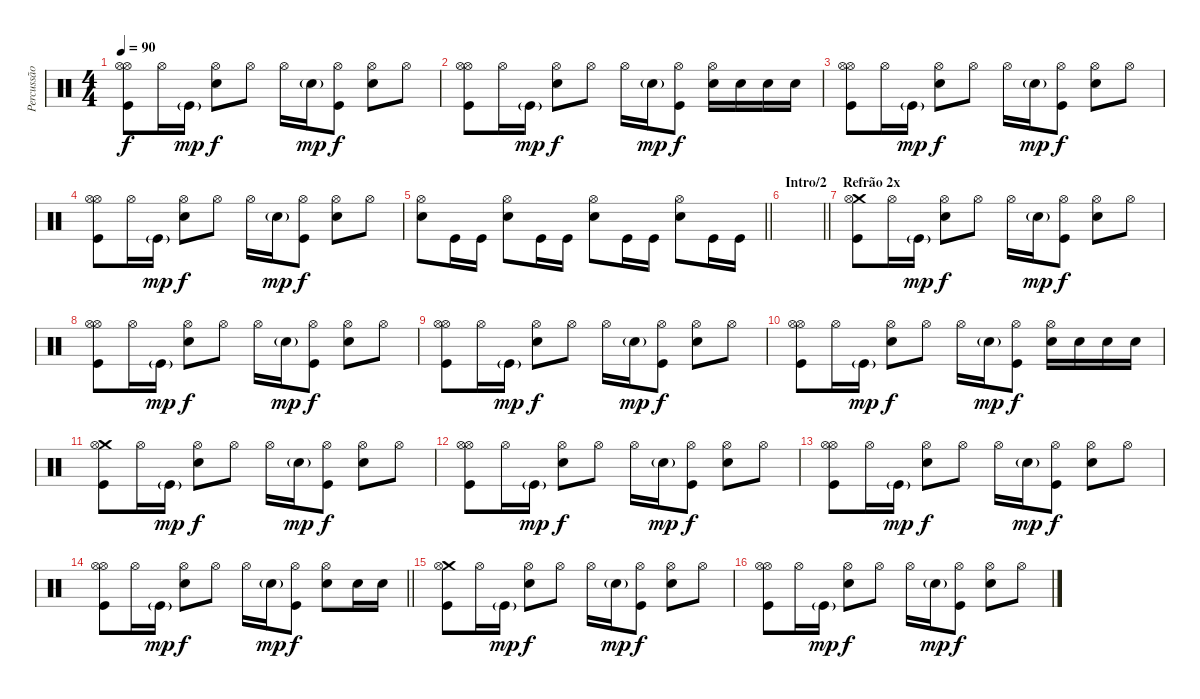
\track ("Percussão" "Percussão") {instrument percussion}
\staff {score}
\articulation defaults
\ts (4 4)
\tempo 90
\clef neutral
\ks c
("Hi-Hat (open)" "Kick (hit)" "Hi-Hat (open)").8{dy f} "Hi-Hat (open)".16 "Kick (hit)"{g}.16{dy mp} ("Snare (hit) 2" "Hi-Hat (open)").8{dy f} "Hi-Hat (open)".8 "Hi-Hat (open)".16 "Snare (hit) 2"{g}.16{dy mp} ("Hi-Hat (open)" "Kick (hit)").8{dy f} ("Hi-Hat (open)" "Snare (hit) 2").8 "Hi-Hat (open)".8 |
("Hi-Hat (open)" "Kick (hit)" "Hi-Hat (open)").8 "Hi-Hat (open)".16 "Kick (hit)"{g}.16{dy mp} ("Snare (hit) 2" "Hi-Hat (open)").8{dy f} "Hi-Hat (open)".8 "Hi-Hat (open)".16 "Snare (hit) 2"{g}.16{dy mp} ("Hi-Hat (open)" "Kick (hit)").8{dy f} ("Hi-Hat (open)" "Snare (hit) 2").16 "Snare (hit) 2".16 "Snare (hit) 2".16 "Snare (hit) 2".16 |
("Hi-Hat (open)" "Kick (hit)" "Hi-Hat (open)").8 "Hi-Hat (open)".16 "Kick (hit)"{g}.16{dy mp} ("Snare (hit) 2" "Hi-Hat (open)").8{dy f} "Hi-Hat (open)".8 "Hi-Hat (open)".16 "Snare (hit) 2"{g}.16{dy mp} ("Hi-Hat (open)" "Kick (hit)").8{dy f} ("Hi-Hat (open)" "Snare (hit) 2").8 "Hi-Hat (open)".8 |
("Hi-Hat (open)" "Kick (hit)" "Hi-Hat (open)").8 "Hi-Hat (open)".16 "Kick (hit)"{g}.16{dy mp} ("Snare (hit) 2" "Hi-Hat (open)").8{dy f} "Hi-Hat (open)".8 "Hi-Hat (open)".16 "Snare (hit) 2"{g}.16{dy mp} ("Hi-Hat (open)" "Kick (hit)").8{dy f} ("Hi-Hat (open)" "Snare (hit) 2").8 "Hi-Hat (open)".8 |
\barLineRight lightlight
("Snare (hit) 2" "Hi-Hat (open)").8 "Kick (hit)".16 "Kick (hit)".16 ("Snare (hit) 2" "Hi-Hat (open)").8 "Kick (hit)".16 "Kick (hit)".16 ("Snare (hit) 2" "Hi-Hat (open)").8 "Kick (hit)".16 "Kick (hit)".16 ("Snare (hit) 2" "Hi-Hat (open)").8 "Kick (hit)".16 "Kick (hit)".16 |
\section ("" "Intro/2")
\barLineRight lightlight
|
\section ("" "Refrão 2x")
("Crash medium (hit)" "Kick (hit)" "Hi-Hat (open)").8 "Hi-Hat (open)".16 "Kick (hit)"{g}.16{dy mp} ("Snare (hit) 2" "Hi-Hat (open)").8{dy f} "Hi-Hat (open)".8 "Hi-Hat (open)".16 "Snare (hit) 2"{g}.16{dy mp} ("Hi-Hat (open)" "Kick (hit)").8{dy f} ("Hi-Hat (open)" "Snare (hit) 2").8 "Hi-Hat (open)".8 |
("Hi-Hat (open)" "Kick (hit)" "Hi-Hat (open)").8 "Hi-Hat (open)".16 "Kick (hit)"{g}.16{dy mp} ("Snare (hit) 2" "Hi-Hat (open)").8{dy f} "Hi-Hat (open)".8 "Hi-Hat (open)".16 "Snare (hit) 2"{g}.16{dy mp} ("Hi-Hat (open)" "Kick (hit)").8{dy f} ("Hi-Hat (open)" "Snare (hit) 2").8 "Hi-Hat (open)".8 |
("Hi-Hat (open)" "Kick (hit)" "Hi-Hat (open)").8 "Hi-Hat (open)".16 "Kick (hit)"{g}.16{dy mp} ("Snare (hit) 2" "Hi-Hat (open)").8{dy f} "Hi-Hat (open)".8 "Hi-Hat (open)".16 "Snare (hit) 2"{g}.16{dy mp} ("Hi-Hat (open)" "Kick (hit)").8{dy f} ("Hi-Hat (open)" "Snare (hit) 2").8 "Hi-Hat (open)".8 |
("Hi-Hat (open)" "Kick (hit)" "Hi-Hat (open)").8 "Hi-Hat (open)".16 "Kick (hit)"{g}.16{dy mp} ("Snare (hit) 2" "Hi-Hat (open)").8{dy f} "Hi-Hat (open)".8 "Hi-Hat (open)".16 "Snare (hit) 2"{g}.16{dy mp} ("Hi-Hat (open)" "Kick (hit)").8{dy f} ("Hi-Hat (open)" "Snare (hit) 2").16 "Snare (hit) 2".16 "Snare (hit) 2".16 "Snare (hit) 2".16 |
("Crash medium (hit)" "Kick (hit)" "Hi-Hat (open)").8 "Hi-Hat (open)".16 "Kick (hit)"{g}.16{dy mp} ("Snare (hit) 2" "Hi-Hat (open)").8{dy f} "Hi-Hat (open)".8 "Hi-Hat (open)".16 "Snare (hit) 2"{g}.16{dy mp} ("Hi-Hat (open)" "Kick (hit)").8{dy f} ("Hi-Hat (open)" "Snare (hit) 2").8 "Hi-Hat (open)".8 |
("Hi-Hat (open)" "Kick (hit)" "Hi-Hat (open)").8 "Hi-Hat (open)".16 "Kick (hit)"{g}.16{dy mp} ("Snare (hit) 2" "Hi-Hat (open)").8{dy f} "Hi-Hat (open)".8 "Hi-Hat (open)".16 "Snare (hit) 2"{g}.16{dy mp} ("Hi-Hat (open)" "Kick (hit)").8{dy f} ("Hi-Hat (open)" "Snare (hit) 2").8 "Hi-Hat (open)".8 |
("Hi-Hat (open)" "Kick (hit)" "Hi-Hat (open)").8 "Hi-Hat (open)".16 "Kick (hit)"{g}.16{dy mp} ("Snare (hit) 2" "Hi-Hat (open)").8{dy f} "Hi-Hat (open)".8 "Hi-Hat (open)".16 "Snare (hit) 2"{g}.16{dy mp} ("Hi-Hat (open)" "Kick (hit)").8{dy f} ("Hi-Hat (open)" "Snare (hit) 2").8 "Hi-Hat (open)".8 |
\barLineRight lightlight
("Hi-Hat (open)" "Kick (hit)" "Hi-Hat (open)").8 "Hi-Hat (open)".16 "Kick (hit)"{g}.16{dy mp} ("Snare (hit) 2" "Hi-Hat (open)").8{dy f} "Hi-Hat (open)".8 "Hi-Hat (open)".16 "Snare (hit) 2"{g}.16{dy mp} ("Hi-Hat (open)" "Kick (hit)").8{dy f} ("Hi-Hat (open)" "Snare (hit) 2").8 "Snare (hit) 2".16 "Snare (hit) 2".16 |
("Crash medium (hit)" "Kick (hit)" "Hi-Hat (open)").8 "Hi-Hat (open)".16 "Kick (hit)"{g}.16{dy mp} ("Snare (hit) 2" "Hi-Hat (open)").8{dy f} "Hi-Hat (open)".8 "Hi-Hat (open)".16 "Snare (hit) 2"{g}.16{dy mp} ("Hi-Hat (open)" "Kick (hit)").8{dy f} ("Hi-Hat (open)" "Snare (hit) 2").8 "Hi-Hat (open)".8 |
("Hi-Hat (open)" "Kick (hit)" "Hi-Hat (open)").8 "Hi-Hat (open)".16 "Kick (hit)"{g}.16{dy mp} ("Snare (hit) 2" "Hi-Hat (open)").8{dy f} "Hi-Hat (open)".8 "Hi-Hat (open)".16 "Snare (hit) 2"{g}.16{dy mp} ("Hi-Hat (open)" "Kick (hit)").8{dy f} ("Hi-Hat (open)" "Snare (hit) 2").8 "Hi-Hat (open)".8
